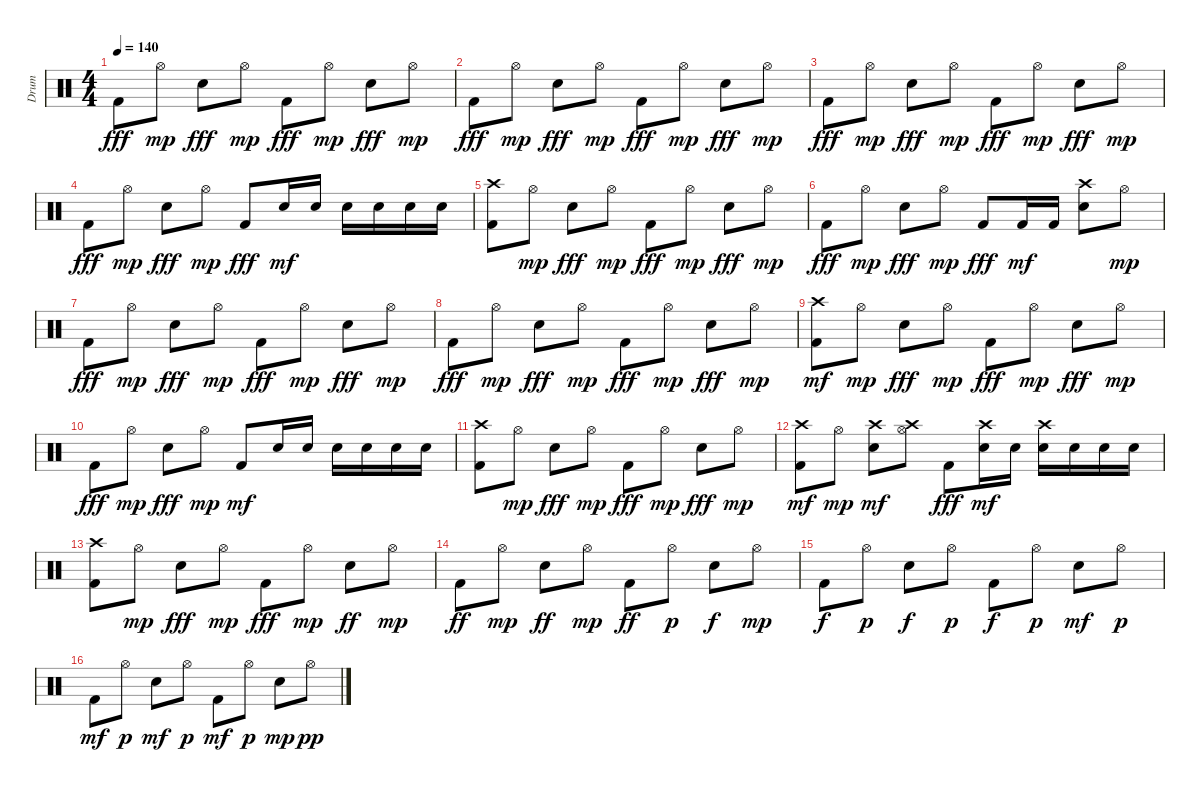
\track ("Drum" "Drum") {instrument percussion}
\staff {score}
\articulation defaults
\ts (4 4)
\tempo 140
\clef neutral
\ks c "Kick (hit) 2".8{dy fff} "Hi-Hat (open)".8{dy mp} "Electric Snare (hit)".8{dy fff} "Hi-Hat (open)".8{dy mp} "Kick (hit) 2".8{dy fff} "Hi-Hat (open)".8{dy mp} "Electric Snare (hit)".8{dy fff} "Hi-Hat (open)".8{dy mp}
|
"Kick (hit) 2".8{dy fff} "Hi-Hat (open)".8{dy mp} "Electric Snare (hit)".8{dy fff} "Hi-Hat (open)".8{dy mp} "Kick (hit) 2".8{dy fff} "Hi-Hat (open)".8{dy mp} "Electric Snare (hit)".8{dy fff} "Hi-Hat (open)".8{dy mp} |
"Kick (hit) 2".8{dy fff} "Hi-Hat (open)".8{dy mp} "Electric Snare (hit)".8{dy fff} "Hi-Hat (open)".8{dy mp} "Kick (hit) 2".8{dy fff} "Hi-Hat (open)".8{dy mp} "Electric Snare (hit)".8{dy fff} "Hi-Hat (open)".8{dy mp} |
"Kick (hit) 2".8{dy fff} "Hi-Hat (open)".8{dy mp} "Electric Snare (hit)".8{dy fff} "Hi-Hat (open)".8{dy mp} "Kick (hit) 2".8{dy fff} "Electric Snare (hit)".16{dy mf} "Electric Snare (hit)".16 "Electric Snare (hit)".16 "Electric Snare (hit)".16 "Electric Snare (hit)".16 "Electric Snare (hit)".16 |
("Kick (hit) 2" "Crash high (hit)").8 "Hi-Hat (open)".8{dy mp} "Electric Snare (hit)".8{dy fff} "Hi-Hat (open)".8{dy mp} "Kick (hit) 2".8{dy fff} "Hi-Hat (open)".8{dy mp} "Electric Snare (hit)".8{dy fff} "Hi-Hat (open)".8{dy mp} |
"Kick (hit) 2".8{dy fff} "Hi-Hat (open)".8{dy mp} "Electric Snare (hit)".8{dy fff} "Hi-Hat (open)".8{dy mp} "Kick (hit) 2".8{dy fff} "Kick (hit) 2".16{dy mf} "Kick (hit) 2".16 ("Electric Snare (hit)" "Crash high (hit)").8 "Hi-Hat (open)".8{dy mp} |
"Kick (hit) 2".8{dy fff} "Hi-Hat (open)".8{dy mp} "Electric Snare (hit)".8{dy fff} "Hi-Hat (open)".8{dy mp} "Kick (hit) 2".8{dy fff} "Hi-Hat (open)".8{dy mp} "Electric Snare (hit)".8{dy fff} "Hi-Hat (open)".8{dy mp} |
"Kick (hit) 2".8{dy fff} "Hi-Hat (open)".8{dy mp} "Electric Snare (hit)".8{dy fff} "Hi-Hat (open)".8{dy mp} "Kick (hit) 2".8{dy fff} "Hi-Hat (open)".8{dy mp} "Electric Snare (hit)".8{dy fff} "Hi-Hat (open)".8{dy mp} |
("Kick (hit) 2" "Crash high (hit)").8{dy mf} "Hi-Hat (open)".8{dy mp} "Electric Snare (hit)".8{dy fff} "Hi-Hat (open)".8{dy mp} "Kick (hit) 2".8{dy fff} "Hi-Hat (open)".8{dy mp} "Electric Snare (hit)".8{dy fff} "Hi-Hat (open)".8{dy mp} |
"Kick (hit) 2".8{dy fff} "Hi-Hat (open)".8{dy mp} "Electric Snare (hit)".8{dy fff} "Hi-Hat (open)".8{dy mp} "Kick (hit) 2".8{dy mf} "Electric Snare (hit)".16 "Electric Snare (hit)".16 "Electric Snare (hit)".16 "Electric Snare (hit)".16 "Electric Snare (hit)".16 "Electric Snare (hit)".16 |
("Kick (hit) 2" "Crash high (hit)").8 "Hi-Hat (open)".8{dy mp} "Electric Snare (hit)".8{dy fff} "Hi-Hat (open)".8{dy mp} "Kick (hit) 2".8{dy fff} "Hi-Hat (open)".8{dy mp} "Electric Snare (hit)".8{dy fff} "Hi-Hat (open)".8{dy mp} |
("Kick (hit) 2" "Crash high (hit)").8{dy mf} "Hi-Hat (open)".8{dy mp} ("Electric Snare (hit)" "Crash high (hit)").8{dy mf} ("Hi-Hat (open)" "Crash high (hit)").8 "Kick (hit) 2".8{dy fff} ("Electric Snare (hit)" "Crash high (hit)").16{dy mf} "Electric Snare (hit)".16 ("Electric Snare (hit)" "Crash high (hit)").16 "Electric Snare (hit)".16 "Electric Snare (hit)".16 "Electric Snare (hit)".16 |
("Kick (hit) 2" "Crash high (hit)").8 "Hi-Hat (open)".8{dy mp} "Electric Snare (hit)".8{dy fff} "Hi-Hat (open)".8{dy mp} "Kick (hit) 2".8{dy fff} "Hi-Hat (open)".8{dy mp} "Electric Snare (hit)".8{dy ff} "Hi-Hat (open)".8{dy mp} |
"Kick (hit) 2".8{dy ff} "Hi-Hat (open)".8{dy mp} "Electric Snare (hit)".8{dy ff} "Hi-Hat (open)".8{dy mp} "Kick (hit) 2".8{dy ff} "Hi-Hat (open)".8{dy p} "Electric Snare (hit)".8{dy f} "Hi-Hat (open)".8{dy mp} |
"Kick (hit) 2".8{dy f} "Hi-Hat (open)".8{dy p} "Electric Snare (hit)".8{dy f} "Hi-Hat (open)".8{dy p} "Kick (hit) 2".8{dy f} "Hi-Hat (open)".8{dy p} "Electric Snare (hit)".8{dy mf} "Hi-Hat (open)".8{dy p} |
"Kick (hit) 2".8{dy mf} "Hi-Hat (open)".8{dy p} "Electric Snare (hit)".8{dy mf} "Hi-Hat (open)".8{dy p} "Kick (hit) 2".8{dy mf} "Hi-Hat (open)".8{dy p} "Electric Snare (hit)".8{dy mp} "Hi-Hat (open)".8{dy pp}
